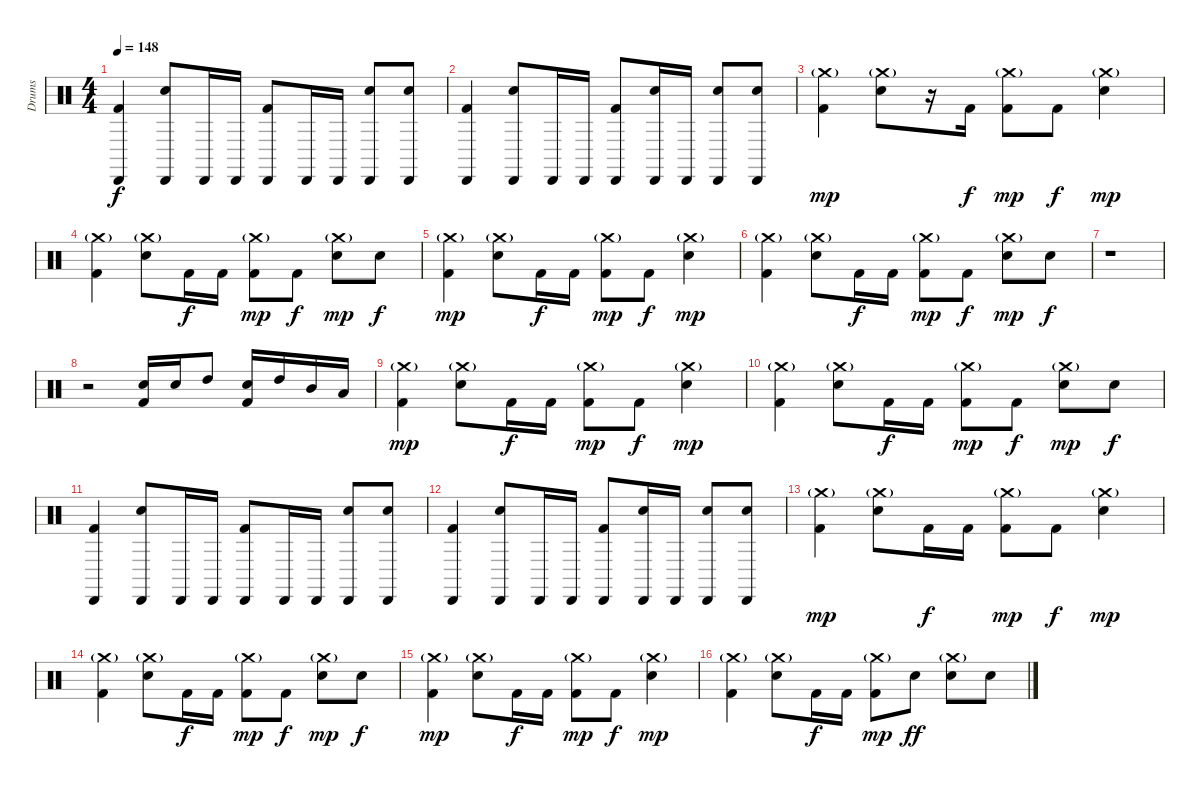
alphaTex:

\track ("Drums" "Drums") {instrument percussion}
\staff {score}
\articulation defaults
\ts (4 4)
\tempo 148
\clef neutral
\ks c
("Cabasa (hit)" "Kick (hit) 2").4{dy f} ("Cabasa (hit)" "Snare (hit) 2").8 "Cabasa (hit)".16 "Cabasa (hit)".16 ("Cabasa (hit)" "Kick (hit) 2").8 "Cabasa (hit)".16 "Cabasa (hit)".16 ("Cabasa (hit)" "Snare (hit) 2").8 ("Cabasa (hit)" "Snare (hit) 2").8 |
("Cabasa (hit)" "Kick (hit) 2").4 ("Cabasa (hit)" "Snare (hit) 2").8 "Cabasa (hit)".16 "Cabasa (hit)".16 ("Cabasa (hit)" "Kick (hit) 2").8 ("Cabasa (hit)" "Snare (hit) 2").16 "Cabasa (hit)".16 ("Cabasa (hit)" "Snare (hit) 2").8 ("Cabasa (hit)" "Snare (hit) 2").8 |
("Crash medium (hit)"{g} "Kick (hit) 2").4{dy mp} ("Crash medium (hit)"{g} "Snare (hit) 2").8 r.16 "Kick (hit) 2".16{dy f} ("Crash medium (hit)"{g} "Kick (hit) 2").8{dy mp} "Kick (hit) 2".8{dy f} ("Crash medium (hit)"{g} "Snare (hit) 2").4{dy mp} |
("Crash medium (hit)"{g} "Kick (hit) 2").4 ("Crash medium (hit)"{g} "Snare (hit) 2").8 "Kick (hit) 2".16{dy f} "Kick (hit) 2".16 ("Crash medium (hit)"{g} "Kick (hit) 2").8{dy mp} "Kick (hit) 2".8{dy f} ("Crash medium (hit)"{g} "Snare (hit) 2").8{dy mp} "Snare (hit) 2".8{dy f} |
("Crash medium (hit)"{g} "Kick (hit) 2").4{dy mp} ("Crash medium (hit)"{g} "Snare (hit) 2").8 "Kick (hit) 2".16{dy f} "Kick (hit) 2".16 ("Crash medium (hit)"{g} "Kick (hit) 2").8{dy mp} "Kick (hit) 2".8{dy f} ("Crash medium (hit)"{g} "Snare (hit) 2").4{dy mp} |
("Crash medium (hit)"{g} "Kick (hit) 2").4 ("Crash medium (hit)"{g} "Snare (hit) 2").8 "Kick (hit) 2".16{dy f} "Kick (hit) 2".16 ("Crash medium (hit)"{g} "Kick (hit) 2").8{dy mp} "Kick (hit) 2".8{dy f} ("Crash medium (hit)"{g} "Snare (hit) 2").8{dy mp} "Snare (hit) 2".8{dy f} |
r.1 |
r.2 ("Snare (hit) 2" "Kick (hit) 2").16 "Snare (hit) 2".16 "High Tom (hit)".8 ("Snare (hit) 2" "Kick (hit) 2").16 "High Tom (hit)".16 "Mid Tom (hit)".16 "Low Tom (hit)".16 |
("Crash medium (hit)"{g} "Kick (hit) 2").4{dy mp} ("Crash medium (hit)"{g} "Snare (hit) 2").8 "Kick (hit) 2".16{dy f} "Kick (hit) 2".16 ("Crash medium (hit)"{g} "Kick (hit) 2").8{dy mp} "Kick (hit) 2".8{dy f} ("Crash medium (hit)"{g} "Snare (hit) 2").4{dy mp} |
("Crash medium (hit)"{g} "Kick (hit) 2").4 ("Crash medium (hit)"{g} "Snare (hit) 2").8 "Kick (hit) 2".16{dy f} "Kick (hit) 2".16 ("Crash medium (hit)"{g} "Kick (hit) 2").8{dy mp} "Kick (hit) 2".8{dy f} ("Crash medium (hit)"{g} "Snare (hit) 2").8{dy mp} "Snare (hit) 2".8{dy f} |
("Cabasa (hit)" "Kick (hit) 2").4 ("Cabasa (hit)" "Snare (hit) 2").8 "Cabasa (hit)".16 "Cabasa (hit)".16 ("Cabasa (hit)" "Kick (hit) 2").8 "Cabasa (hit)".16 "Cabasa (hit)".16 ("Cabasa (hit)" "Snare (hit) 2").8 ("Cabasa (hit)" "Snare (hit) 2").8 |
("Cabasa (hit)" "Kick (hit) 2").4 ("Cabasa (hit)" "Snare (hit) 2").8 "Cabasa (hit)".16 "Cabasa (hit)".16 ("Cabasa (hit)" "Kick (hit) 2").8 ("Cabasa (hit)" "Snare (hit) 2").16 "Cabasa (hit)".16 ("Cabasa (hit)" "Snare (hit) 2").8 ("Cabasa (hit)" "Snare (hit) 2").8 |
("Crash medium (hit)"{g} "Kick (hit) 2").4{dy mp} ("Crash medium (hit)"{g} "Snare (hit) 2").8 "Kick (hit) 2".16{dy f} "Kick (hit) 2".16 ("Crash medium (hit)"{g} "Kick (hit) 2").8{dy mp} "Kick (hit) 2".8{dy f} ("Crash medium (hit)"{g} "Snare (hit) 2").4{dy mp} |
("Crash medium (hit)"{g} "Kick (hit) 2").4 ("Crash medium (hit)"{g} "Snare (hit) 2").8 "Kick (hit) 2".16{dy f} "Kick (hit) 2".16 ("Crash medium (hit)"{g} "Kick (hit) 2").8{dy mp} "Kick (hit) 2".8{dy f} ("Crash medium (hit)"{g} "Snare (hit) 2").8{dy mp} "Snare (hit) 2".8{dy f} |
("Crash medium (hit)"{g} "Kick (hit) 2").4{dy mp} ("Crash medium (hit)"{g} "Snare (hit) 2").8 "Kick (hit) 2".16{dy f} "Kick (hit) 2".16 ("Crash medium (hit)"{g} "Kick (hit) 2").8{dy mp} "Kick (hit) 2".8{dy f} ("Crash medium (hit)"{g} "Snare (hit) 2").4{dy mp} |
("Crash medium (hit)"{g} "Kick (hit) 2").4 ("Crash medium (hit)"{g} "Snare (hit) 2").8 "Kick (hit) 2".16{dy f} "Kick (hit) 2".16 ("Crash medium (hit)"{g} "Kick (hit) 2").8{dy mp} "Snare (hit) 2".8{dy ff} ("Crash medium (hit)"{g} "Snare (hit) 2").8 "Snare (hit) 2".8
